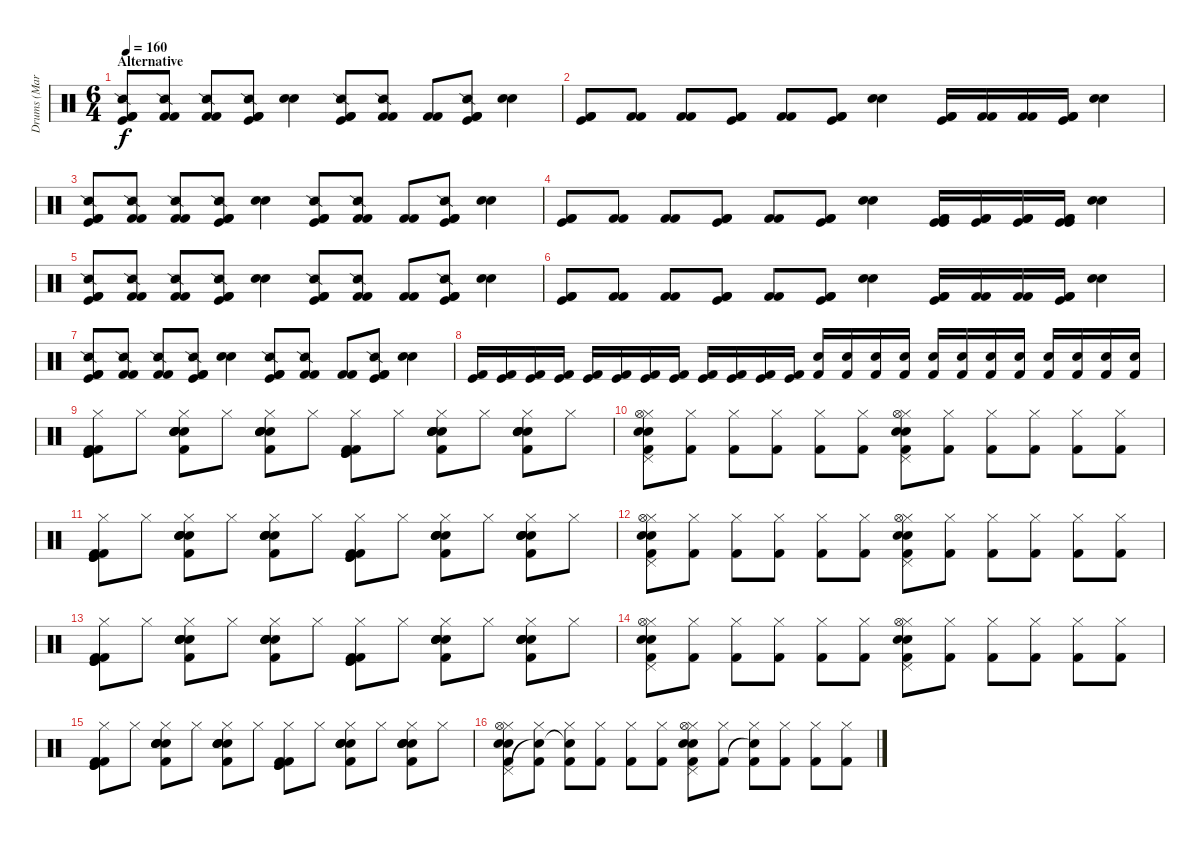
\track ("Drums (Marc Allen)" "Drums (Mar") {instrument percussion}
\staff {score}
\articulation defaults
\ts (6 4)
\section ("" "Alternative")
\tempo 160
\clef neutral
\ks c
("Kick (hit) 2" "Snare (side stick) 2" "Kick (hit) 2" "Kick (hit)").8{dy f} ("Kick (hit) 2" "Snare (side stick) 2" "Kick (hit) 2").8 ("Kick (hit) 2" "Snare (side stick) 2" "Kick (hit) 2").8 ("Kick (hit) 2" "Snare (side stick) 2" "Kick (hit) 2" "Kick (hit)").8 ("Electric Snare (hit)" "Electric Snare (hit)").4 ("Kick (hit) 2" "Snare (side stick) 2" "Kick (hit) 2" "Kick (hit)").8 ("Kick (hit) 2" "Snare (side stick) 2" "Kick (hit) 2").8 ("Kick (hit) 2" "Kick (hit) 2").8 ("Kick (hit) 2" "Snare (side stick) 2" "Kick (hit) 2" "Kick (hit)").8 ("Electric Snare (hit)" "Electric Snare (hit)").4 |
("Kick (hit) 2" "Kick (hit) 2" "Kick (hit)").8 ("Kick (hit) 2" "Kick (hit) 2").8 ("Kick (hit) 2" "Kick (hit) 2").8 ("Kick (hit) 2" "Kick (hit) 2" "Kick (hit)").8 ("Kick (hit) 2" "Kick (hit) 2").8 ("Kick (hit) 2" "Kick (hit) 2" "Kick (hit)").8 ("Electric Snare (hit)" "Electric Snare (hit)").4 ("Kick (hit) 2" "Kick (hit) 2" "Kick (hit)").16 ("Kick (hit) 2" "Kick (hit) 2").16 ("Kick (hit) 2" "Kick (hit) 2").16 ("Kick (hit) 2" "Kick (hit) 2" "Kick (hit)").16 ("Electric Snare (hit)" "Electric Snare (hit)").4 |
("Kick (hit) 2" "Snare (side stick) 2" "Kick (hit) 2" "Kick (hit)").8 ("Kick (hit) 2" "Snare (side stick) 2" "Kick (hit) 2").8 ("Kick (hit) 2" "Snare (side stick) 2" "Kick (hit) 2").8 ("Kick (hit) 2" "Snare (side stick) 2" "Kick (hit) 2" "Kick (hit)").8 ("Electric Snare (hit)" "Electric Snare (hit)").4 ("Kick (hit) 2" "Snare (side stick) 2" "Kick (hit) 2" "Kick (hit)").8 ("Kick (hit) 2" "Snare (side stick) 2" "Kick (hit) 2").8 ("Kick (hit) 2" "Kick (hit) 2").8 ("Kick (hit) 2" "Snare (side stick) 2" "Kick (hit) 2" "Kick (hit)").8 ("Electric Snare (hit)" "Electric Snare (hit)").4 |
("Kick (hit) 2" "Kick (hit) 2" "Kick (hit)").8 ("Kick (hit) 2" "Kick (hit) 2").8 ("Kick (hit) 2" "Kick (hit) 2").8 ("Kick (hit) 2" "Kick (hit) 2" "Kick (hit)").8 ("Kick (hit) 2" "Kick (hit) 2").8 ("Kick (hit) 2" "Kick (hit) 2" "Kick (hit)").8 ("Electric Snare (hit)" "Electric Snare (hit)").4 ("Kick (hit) 2" "Kick (hit)" "Kick (hit) 2" "Kick (hit)").16 ("Kick (hit) 2" "Kick (hit)" "Kick (hit) 2").16 ("Kick (hit) 2" "Kick (hit)" "Kick (hit) 2").16 ("Kick (hit) 2" "Kick (hit)" "Kick (hit) 2" "Kick (hit)").16 ("Electric Snare (hit)" "Electric Snare (hit)").4 |
("Kick (hit) 2" "Snare (side stick) 2" "Kick (hit) 2" "Kick (hit)").8 ("Kick (hit) 2" "Snare (side stick) 2" "Kick (hit) 2").8 ("Kick (hit) 2" "Snare (side stick) 2" "Kick (hit) 2").8 ("Kick (hit) 2" "Snare (side stick) 2" "Kick (hit) 2" "Kick (hit)").8 ("Electric Snare (hit)" "Electric Snare (hit)").4 ("Kick (hit) 2" "Snare (side stick) 2" "Kick (hit) 2" "Kick (hit)").8 ("Kick (hit) 2" "Snare (side stick) 2" "Kick (hit) 2").8 ("Kick (hit) 2" "Kick (hit) 2").8 ("Kick (hit) 2" "Snare (side stick) 2" "Kick (hit) 2" "Kick (hit)").8 ("Electric Snare (hit)" "Electric Snare (hit)").4 |
("Kick (hit) 2" "Kick (hit) 2" "Kick (hit)").8 ("Kick (hit) 2" "Kick (hit) 2").8 ("Kick (hit) 2" "Kick (hit) 2").8 ("Kick (hit) 2" "Kick (hit) 2" "Kick (hit)").8 ("Kick (hit) 2" "Kick (hit) 2").8 ("Kick (hit) 2" "Kick (hit) 2" "Kick (hit)").8 ("Electric Snare (hit)" "Electric Snare (hit)").4 ("Kick (hit) 2" "Kick (hit) 2" "Kick (hit)").16 ("Kick (hit) 2" "Kick (hit) 2").16 ("Kick (hit) 2" "Kick (hit) 2").16 ("Kick (hit) 2" "Kick (hit) 2" "Kick (hit)").16 ("Electric Snare (hit)" "Electric Snare (hit)").4 |
("Kick (hit) 2" "Snare (side stick) 2" "Kick (hit) 2" "Kick (hit)").8 ("Kick (hit) 2" "Snare (side stick) 2" "Kick (hit) 2").8 ("Kick (hit) 2" "Snare (side stick) 2" "Kick (hit) 2").8 ("Kick (hit) 2" "Snare (side stick) 2" "Kick (hit) 2" "Kick (hit)").8 ("Electric Snare (hit)" "Electric Snare (hit)").4 ("Kick (hit) 2" "Snare (side stick) 2" "Kick (hit) 2" "Kick (hit)").8 ("Kick (hit) 2" "Snare (side stick) 2" "Kick (hit) 2").8 ("Kick (hit) 2" "Kick (hit) 2").8 ("Kick (hit) 2" "Snare (side stick) 2" "Kick (hit) 2" "Kick (hit)").8 ("Electric Snare (hit)" "Electric Snare (hit)").4 |
("Kick (hit)" "Kick (hit) 2").16 ("Kick (hit)" "Kick (hit) 2").16 ("Kick (hit)" "Kick (hit) 2").16 ("Kick (hit)" "Kick (hit) 2").16 ("Kick (hit)" "Kick (hit) 2").16 ("Kick (hit)" "Kick (hit) 2").16 ("Kick (hit)" "Kick (hit) 2").16 ("Kick (hit)" "Kick (hit) 2").16 ("Kick (hit)" "Kick (hit) 2").16 ("Kick (hit)" "Kick (hit) 2").16 ("Kick (hit)" "Kick (hit) 2").16 ("Kick (hit)" "Kick (hit) 2").16 ("Electric Snare (hit)" "Kick (hit) 2").16 ("Electric Snare (hit)" "Kick (hit) 2").16 ("Electric Snare (hit)" "Kick (hit) 2").16 ("Electric Snare (hit)" "Kick (hit) 2").16 ("Electric Snare (hit)" "Kick (hit) 2").16 ("Electric Snare (hit)" "Kick (hit) 2").16 ("Electric Snare (hit)" "Kick (hit) 2").16 ("Electric Snare (hit)" "Kick (hit) 2").16 ("Electric Snare (hit)" "Kick (hit) 2").16 ("Electric Snare (hit)" "Kick (hit) 2").16 ("Electric Snare (hit)" "Kick (hit) 2").16 ("Electric Snare (hit)" "Kick (hit) 2").16 |
("Hi-Hat (closed)" "Kick (hit) 2" "Kick (hit)" "Kick (hit)" "Kick (hit) 2").8 "Hi-Hat (closed)".8 ("Hi-Hat (closed)" "Electric Snare (hit)" "Electric Snare (hit)" "Electric Snare (hit)" "Electric Snare (hit)" "Kick (hit) 2").8 "Hi-Hat (closed)".8 ("Hi-Hat (closed)" "Electric Snare (hit)" "Electric Snare (hit)" "Electric Snare (hit)" "Electric Snare (hit)" "Kick (hit) 2").8 "Hi-Hat (closed)".8 ("Hi-Hat (closed)" "Kick (hit) 2" "Kick (hit)" "Kick (hit)" "Kick (hit) 2").8 "Hi-Hat (closed)".8 ("Hi-Hat (closed)" "Electric Snare (hit)" "Electric Snare (hit)" "Electric Snare (hit)" "Electric Snare (hit)" "Kick (hit) 2").8 "Hi-Hat (closed)".8 ("Hi-Hat (closed)" "Electric Snare (hit)" "Electric Snare (hit)" "Electric Snare (hit)" "Electric Snare (hit)" "Kick (hit) 2").8 "Hi-Hat (closed)".8 |
("Hi-Hat (closed)" "Pedal Hi-Hat (hit)" "Hi-Hat (open)" "Electric Snare (hit)" "Electric Snare (hit)" "Kick (hit) 2").8 ("Hi-Hat (closed)" "Kick (hit) 2").8 ("Hi-Hat (closed)" "Kick (hit) 2").8 ("Hi-Hat (closed)" "Kick (hit) 2").8 ("Hi-Hat (closed)" "Kick (hit) 2").8 ("Hi-Hat (closed)" "Kick (hit) 2").8 ("Hi-Hat (closed)" "Pedal Hi-Hat (hit)" "Hi-Hat (open)" "Electric Snare (hit)" "Electric Snare (hit)" "Kick (hit) 2").8 ("Hi-Hat (closed)" "Kick (hit) 2").8 ("Hi-Hat (closed)" "Kick (hit) 2").8 ("Hi-Hat (closed)" "Kick (hit) 2").8 ("Hi-Hat (closed)" "Kick (hit) 2").8 ("Hi-Hat (closed)" "Kick (hit) 2").8 |
("Hi-Hat (closed)" "Kick (hit) 2" "Kick (hit)" "Kick (hit)" "Kick (hit) 2").8 "Hi-Hat (closed)".8 ("Hi-Hat (closed)" "Electric Snare (hit)" "Electric Snare (hit)" "Electric Snare (hit)" "Electric Snare (hit)" "Kick (hit) 2").8 "Hi-Hat (closed)".8 ("Hi-Hat (closed)" "Electric Snare (hit)" "Electric Snare (hit)" "Electric Snare (hit)" "Electric Snare (hit)" "Kick (hit) 2").8 "Hi-Hat (closed)".8 ("Hi-Hat (closed)" "Kick (hit) 2" "Kick (hit)" "Kick (hit)" "Kick (hit) 2").8 "Hi-Hat (closed)".8 ("Hi-Hat (closed)" "Electric Snare (hit)" "Electric Snare (hit)" "Electric Snare (hit)" "Electric Snare (hit)" "Kick (hit) 2").8 "Hi-Hat (closed)".8 ("Hi-Hat (closed)" "Electric Snare (hit)" "Electric Snare (hit)" "Electric Snare (hit)" "Electric Snare (hit)" "Kick (hit) 2").8 "Hi-Hat (closed)".8 |
("Hi-Hat (closed)" "Pedal Hi-Hat (hit)" "Hi-Hat (open)" "Electric Snare (hit)" "Electric Snare (hit)" "Kick (hit) 2").8 ("Hi-Hat (closed)" "Kick (hit) 2").8 ("Hi-Hat (closed)" "Kick (hit) 2").8 ("Hi-Hat (closed)" "Kick (hit) 2").8 ("Hi-Hat (closed)" "Kick (hit) 2").8 ("Hi-Hat (closed)" "Kick (hit) 2").8 ("Hi-Hat (closed)" "Pedal Hi-Hat (hit)" "Hi-Hat (open)" "Electric Snare (hit)" "Electric Snare (hit)" "Kick (hit) 2").8 ("Hi-Hat (closed)" "Kick (hit) 2").8 ("Hi-Hat (closed)" "Kick (hit) 2").8 ("Hi-Hat (closed)" "Kick (hit) 2").8 ("Hi-Hat (closed)" "Kick (hit) 2").8 ("Hi-Hat (closed)" "Kick (hit) 2").8 |
("Hi-Hat (closed)" "Kick (hit) 2" "Kick (hit)" "Kick (hit)" "Kick (hit) 2").8 "Hi-Hat (closed)".8 ("Hi-Hat (closed)" "Electric Snare (hit)" "Electric Snare (hit)" "Electric Snare (hit)" "Electric Snare (hit)" "Kick (hit) 2").8 "Hi-Hat (closed)".8 ("Hi-Hat (closed)" "Electric Snare (hit)" "Electric Snare (hit)" "Electric Snare (hit)" "Electric Snare (hit)" "Kick (hit) 2").8 "Hi-Hat (closed)".8 ("Hi-Hat (closed)" "Kick (hit) 2" "Kick (hit)" "Kick (hit)" "Kick (hit) 2").8 "Hi-Hat (closed)".8 ("Hi-Hat (closed)" "Electric Snare (hit)" "Electric Snare (hit)" "Electric Snare (hit)" "Electric Snare (hit)" "Kick (hit) 2").8 "Hi-Hat (closed)".8 ("Hi-Hat (closed)" "Electric Snare (hit)" "Electric Snare (hit)" "Electric Snare (hit)" "Electric Snare (hit)" "Kick (hit) 2").8 "Hi-Hat (closed)".8 |
("Hi-Hat (closed)" "Pedal Hi-Hat (hit)" "Hi-Hat (open)" "Electric Snare (hit)" "Electric Snare (hit)" "Kick (hit) 2").8 ("Hi-Hat (closed)" "Kick (hit) 2").8 ("Hi-Hat (closed)" "Kick (hit) 2").8 ("Hi-Hat (closed)" "Kick (hit) 2").8 ("Hi-Hat (closed)" "Kick (hit) 2").8 ("Hi-Hat (closed)" "Kick (hit) 2").8 ("Hi-Hat (closed)" "Pedal Hi-Hat (hit)" "Hi-Hat (open)" "Electric Snare (hit)" "Electric Snare (hit)" "Kick (hit) 2").8 ("Hi-Hat (closed)" "Kick (hit) 2").8 ("Hi-Hat (closed)" "Kick (hit) 2").8 ("Hi-Hat (closed)" "Kick (hit) 2").8 ("Hi-Hat (closed)" "Kick (hit) 2").8 ("Hi-Hat (closed)" "Kick (hit) 2").8 |
("Hi-Hat (closed)" "Kick (hit) 2" "Kick (hit)" "Kick (hit)" "Kick (hit) 2").8 "Hi-Hat (closed)".8 ("Hi-Hat (closed)" "Electric Snare (hit)" "Electric Snare (hit)" "Electric Snare (hit)" "Electric Snare (hit)" "Kick (hit) 2").8 "Hi-Hat (closed)".8 ("Hi-Hat (closed)" "Electric Snare (hit)" "Electric Snare (hit)" "Electric Snare (hit)" "Electric Snare (hit)" "Kick (hit) 2").8 "Hi-Hat (closed)".8 ("Hi-Hat (closed)" "Kick (hit) 2" "Kick (hit)" "Kick (hit)" "Kick (hit) 2").8 "Hi-Hat (closed)".8 ("Hi-Hat (closed)" "Electric Snare (hit)" "Electric Snare (hit)" "Electric Snare (hit)" "Electric Snare (hit)" "Kick (hit) 2").8 "Hi-Hat (closed)".8 ("Hi-Hat (closed)" "Electric Snare (hit)" "Electric Snare (hit)" "Electric Snare (hit)" "Electric Snare (hit)" "Kick (hit) 2").8 "Hi-Hat (closed)".8 |
("Hi-Hat (closed)" "Pedal Hi-Hat (hit)" "Hi-Hat (open)" "Electric Snare (hit)" "Electric Snare (hit)" "Kick (hit) 2").8 ("Hi-Hat (closed)" "Snare (hit)"{t} "Kick (hit) 2").8 ("Hi-Hat (closed)" "Snare (hit)"{t} "Kick (hit) 2").8 ("Hi-Hat (closed)" "Kick (hit) 2").8 ("Hi-Hat (closed)" "Kick (hit) 2").8 ("Hi-Hat (closed)" "Kick (hit) 2").8 ("Hi-Hat (closed)" "Pedal Hi-Hat (hit)" "Hi-Hat (open)" "Electric Snare (hit)" "Electric Snare (hit)" "Kick (hit) 2").8 ("Hi-Hat (closed)" "Kick (hit) 2").8 ("Hi-Hat (closed)" "Snare (hit)"{t} "Kick (hit) 2").8 ("Hi-Hat (closed)" "Kick (hit) 2").8 ("Hi-Hat (closed)" "Kick (hit) 2").8 ("Hi-Hat (closed)" "Kick (hit) 2").8
